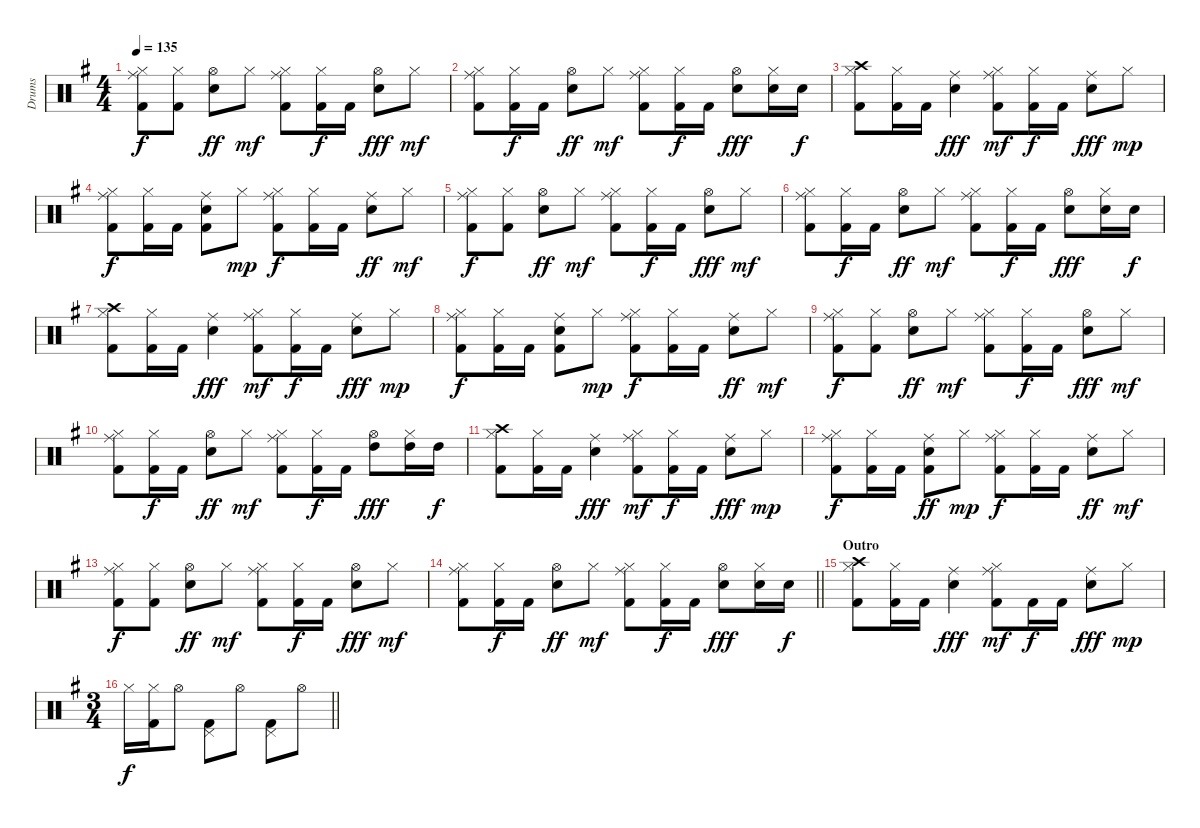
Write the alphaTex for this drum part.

\track ("Drums" "Drums") {instrument percussion}
\staff {score}
\articulation defaults
\ts (4 4)
\tempo 135
\clef neutral
\ks g
("Hi-Hat (closed)" "Ride (middle)" "Kick (hit) 2").8{dy f} ("Hi-Hat (closed)" "Kick (hit) 2").8 ("Hi-Hat (open)" "Electric Snare (hit)").8{dy ff} "Hi-Hat (closed)".8{dy mf} ("Hi-Hat (closed)" "Ride (middle)" "Kick (hit) 2").8 ("Hi-Hat (closed)" "Kick (hit) 2").16{dy f} "Kick (hit) 2".16 ("Hi-Hat (open)" "Electric Snare (hit)").8{dy fff} "Hi-Hat (closed)".8{dy mf} |
("Hi-Hat (closed)" "Ride (middle)" "Kick (hit) 2").8 ("Hi-Hat (closed)" "Kick (hit) 2").16{dy f} "Kick (hit) 2".16 ("Hi-Hat (open)" "Electric Snare (hit)").8{dy ff} "Hi-Hat (closed)".8{dy mf} ("Hi-Hat (closed)" "Ride (middle)" "Kick (hit) 2").8 ("Hi-Hat (closed)" "Kick (hit) 2").16{dy f} "Kick (hit) 2".16 ("Hi-Hat (open)" "Electric Snare (hit)").8{dy fff} ("Hi-Hat (closed)" "Electric Snare (hit)").16 "Electric Snare (hit)".16{dy f} |
("Hi-Hat (closed)" "Crash high (hit)" "Kick (hit) 2").8 ("Hi-Hat (closed)" "Kick (hit) 2").16 "Kick (hit) 2".16 ("Ride (middle)" "Electric Snare (hit)").4{dy fff} ("Hi-Hat (closed)" "Ride (middle)" "Kick (hit) 2").8{dy mf} ("Hi-Hat (closed)" "Kick (hit) 2").16{dy f} "Kick (hit) 2".16 ("Ride (middle)" "Electric Snare (hit)").8{dy fff} "Hi-Hat (closed)".8{dy mp} |
("Hi-Hat (closed)" "Ride (middle)" "Kick (hit) 2").8{dy f} ("Hi-Hat (closed)" "Kick (hit) 2").16 "Kick (hit) 2".16 ("Ride (middle)" "Electric Snare (hit)" "Kick (hit) 2").8 "Hi-Hat (closed)".8{dy mp} ("Hi-Hat (closed)" "Ride (middle)" "Kick (hit) 2").8{dy f} ("Hi-Hat (closed)" "Kick (hit) 2").16 "Kick (hit) 2".16 ("Ride (middle)" "Electric Snare (hit)").8{dy ff} "Hi-Hat (closed)".8{dy mf} |
("Hi-Hat (closed)" "Ride (middle)" "Kick (hit) 2").8{dy f} ("Hi-Hat (closed)" "Kick (hit) 2").8 ("Hi-Hat (open)" "Electric Snare (hit)").8{dy ff} "Hi-Hat (closed)".8{dy mf} ("Hi-Hat (closed)" "Ride (middle)" "Kick (hit) 2").8 ("Hi-Hat (closed)" "Kick (hit) 2").16{dy f} "Kick (hit) 2".16 ("Hi-Hat (open)" "Electric Snare (hit)").8{dy fff} "Hi-Hat (closed)".8{dy mf} |
("Hi-Hat (closed)" "Ride (middle)" "Kick (hit) 2").8 ("Hi-Hat (closed)" "Kick (hit) 2").16{dy f} "Kick (hit) 2".16 ("Hi-Hat (open)" "Electric Snare (hit)").8{dy ff} "Hi-Hat (closed)".8{dy mf} ("Hi-Hat (closed)" "Ride (middle)" "Kick (hit) 2").8 ("Hi-Hat (closed)" "Kick (hit) 2").16{dy f} "Kick (hit) 2".16 ("Hi-Hat (open)" "Electric Snare (hit)").8{dy fff} ("Hi-Hat (closed)" "Electric Snare (hit)").16 "Electric Snare (hit)".16{dy f} |
("Hi-Hat (closed)" "Crash high (hit)" "Kick (hit) 2").8 ("Hi-Hat (closed)" "Kick (hit) 2").16 "Kick (hit) 2".16 ("Ride (middle)" "Electric Snare (hit)").4{dy fff} ("Hi-Hat (closed)" "Ride (middle)" "Kick (hit) 2").8{dy mf} ("Hi-Hat (closed)" "Kick (hit) 2").16{dy f} "Kick (hit) 2".16 ("Ride (middle)" "Electric Snare (hit)").8{dy fff} "Hi-Hat (closed)".8{dy mp} |
("Hi-Hat (closed)" "Ride (middle)" "Kick (hit) 2").8{dy f} ("Hi-Hat (closed)" "Kick (hit) 2").16 "Kick (hit) 2".16 ("Ride (middle)" "Electric Snare (hit)" "Kick (hit) 2").8 "Hi-Hat (closed)".8{dy mp} ("Hi-Hat (closed)" "Ride (middle)" "Kick (hit) 2").8{dy f} ("Hi-Hat (closed)" "Kick (hit) 2").16 "Kick (hit) 2".16 ("Ride (middle)" "Electric Snare (hit)").8{dy ff} "Hi-Hat (closed)".8{dy mf} |
("Hi-Hat (closed)" "Ride (middle)" "Kick (hit) 2").8{dy f} ("Hi-Hat (closed)" "Kick (hit) 2").8 ("Hi-Hat (open)" "Electric Snare (hit)").8{dy ff} "Hi-Hat (closed)".8{dy mf} ("Hi-Hat (closed)" "Ride (middle)" "Kick (hit) 2").8 ("Hi-Hat (closed)" "Kick (hit) 2").16{dy f} "Kick (hit) 2".16 ("Hi-Hat (open)" "Electric Snare (hit)").8{dy fff} "Hi-Hat (closed)".8{dy mf} |
("Hi-Hat (closed)" "Ride (middle)" "Kick (hit) 2").8 ("Hi-Hat (closed)" "Kick (hit) 2").16{dy f} "Kick (hit) 2".16 ("Hi-Hat (open)" "Electric Snare (hit)").8{dy ff} "Hi-Hat (closed)".8{dy mf} ("Hi-Hat (closed)" "Ride (middle)" "Kick (hit) 2").8 ("Hi-Hat (closed)" "Kick (hit) 2").16{dy f} "Kick (hit) 2".16 ("Hi-Hat (open)" "High Tom (hit)").8{dy fff} ("Hi-Hat (closed)" "High Tom (hit)").16 "High Tom (hit)".16{dy f} |
("Hi-Hat (closed)" "Crash high (hit)" "Kick (hit) 2").8 ("Hi-Hat (closed)" "Kick (hit) 2").16 "Kick (hit) 2".16 ("Ride (middle)" "Electric Snare (hit)").4{dy fff} ("Hi-Hat (closed)" "Ride (middle)" "Kick (hit) 2").8{dy mf} ("Hi-Hat (closed)" "Kick (hit) 2").16{dy f} "Kick (hit) 2".16 ("Ride (middle)" "Electric Snare (hit)").8{dy fff} "Hi-Hat (closed)".8{dy mp} |
("Hi-Hat (closed)" "Ride (middle)" "Kick (hit) 2").8{dy f} ("Hi-Hat (closed)" "Kick (hit) 2").16 "Kick (hit) 2".16 ("Ride (middle)" "Electric Snare (hit)" "Kick (hit) 2").8{dy ff} "Hi-Hat (closed)".8{dy mp} ("Hi-Hat (closed)" "Ride (middle)" "Kick (hit) 2").8{dy f} ("Hi-Hat (closed)" "Kick (hit) 2").16 "Kick (hit) 2".16 ("Ride (middle)" "Electric Snare (hit)").8{dy ff} "Hi-Hat (closed)".8{dy mf} |
("Hi-Hat (closed)" "Ride (middle)" "Kick (hit) 2").8{dy f} ("Hi-Hat (closed)" "Kick (hit) 2").8 ("Hi-Hat (open)" "Electric Snare (hit)").8{dy ff} "Hi-Hat (closed)".8{dy mf} ("Hi-Hat (closed)" "Ride (middle)" "Kick (hit) 2").8 ("Hi-Hat (closed)" "Kick (hit) 2").16{dy f} "Kick (hit) 2".16 ("Hi-Hat (open)" "Electric Snare (hit)").8{dy fff} "Hi-Hat (closed)".8{dy mf} |
\barLineRight lightlight
("Hi-Hat (closed)" "Ride (middle)" "Kick (hit) 2").8 ("Hi-Hat (closed)" "Kick (hit) 2").16{dy f} "Kick (hit) 2".16 ("Hi-Hat (open)" "Electric Snare (hit)").8{dy ff} "Hi-Hat (closed)".8{dy mf} ("Hi-Hat (closed)" "Ride (middle)" "Kick (hit) 2").8 ("Hi-Hat (closed)" "Kick (hit) 2").16{dy f} "Kick (hit) 2".16 ("Hi-Hat (open)" "Electric Snare (hit)").8{dy fff} ("Hi-Hat (closed)" "Electric Snare (hit)").16 "Electric Snare (hit)".16{dy f} |
\section ("" "Outro")
("Hi-Hat (closed)" "Crash high (hit)" "Kick (hit) 2").8 ("Hi-Hat (closed)" "Kick (hit) 2").16 "Kick (hit) 2".16 ("Ride (middle)" "Electric Snare (hit)").4{dy fff} ("Hi-Hat (closed)" "Ride (middle)" "Kick (hit) 2").8{dy mf} "Kick (hit) 2".16{dy f} "Kick (hit) 2".16 ("Ride (middle)" "Electric Snare (hit)").8{dy fff} "Hi-Hat (closed)".8{dy mp} |
\ts (3 4)
\barLineRight lightlight "Hi-Hat (closed)".16{dy f}
("Hi-Hat (closed)" "Kick (hit) 2").16 "Hi-Hat (open)".8 ("Pedal Hi-Hat (hit)" "Kick (hit) 2").8 "Hi-Hat (open)".8 ("Pedal Hi-Hat (hit)" "Kick (hit) 2").8 "Hi-Hat (open)".8
